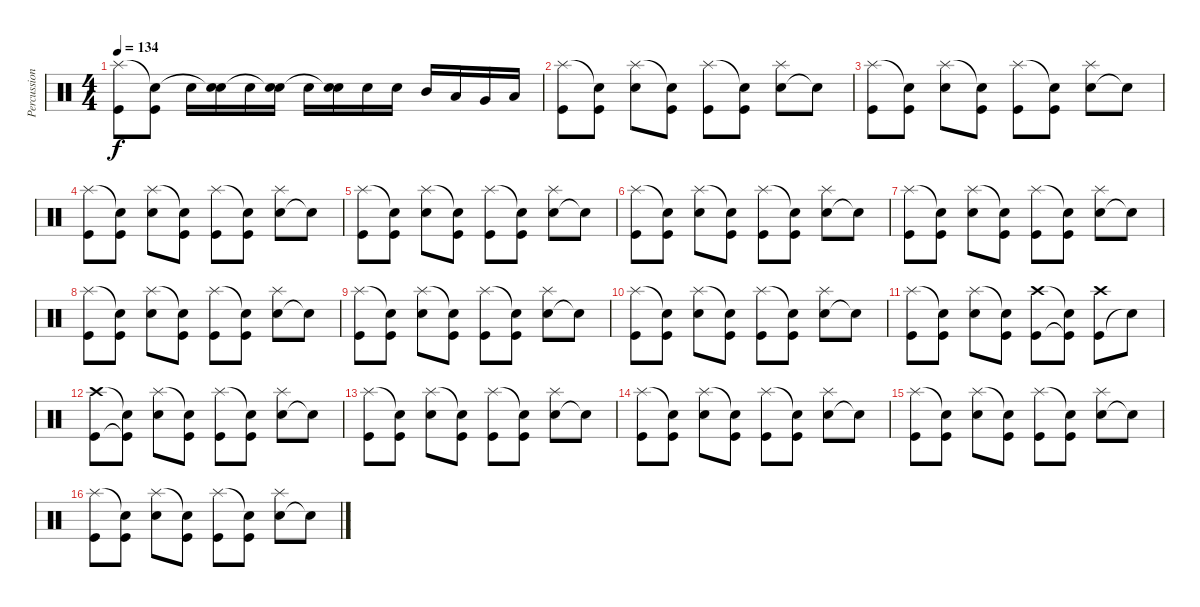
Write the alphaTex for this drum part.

\track ("Percussion" "Percussion") {instrument percussion}
\staff {score}
\articulation defaults
\ts (4 4)
\tempo 134
\clef neutral
\ks c
("Kick (hit)" "Splash (hit)").8{dy f} ("Kick (hit)" "Snare (hit)"{t}).8 "Snare (hit) 2".16 ("Snare (hit) 2" "Snare (hit)"{t}).16 "Snare (hit) 2".16 ("Snare (hit) 2" "Snare (hit)"{t}).16 "Snare (hit) 2".16 ("Snare (hit) 2" "Snare (hit)"{t}).16 "Snare (hit) 2".16 "Snare (hit) 2".16 "Mid Tom (hit)".16 "Low Tom (hit)".16 "Very Low Tom (hit)".16 "Low Floor Tom (hit)".16 |
("Kick (hit)" "Splash (hit)").8 ("Kick (hit)" "Snare (hit)"{t}).8 ("Snare (hit) 2" "Splash (hit)").8 ("Kick (hit)" "Snare (hit)"{t}).8 ("Kick (hit)" "Splash (hit)").8 ("Kick (hit)" "Snare (hit)"{t}).8 ("Snare (hit) 2" "Splash (hit)").8 "Snare (hit)"{t}.8 |
("Kick (hit)" "Splash (hit)").8 ("Kick (hit)" "Snare (hit)"{t}).8 ("Snare (hit) 2" "Splash (hit)").8 ("Kick (hit)" "Snare (hit)"{t}).8 ("Kick (hit)" "Splash (hit)").8 ("Kick (hit)" "Snare (hit)"{t}).8 ("Snare (hit) 2" "Splash (hit)").8 "Snare (hit)"{t}.8 |
("Kick (hit)" "Splash (hit)").8 ("Kick (hit)" "Snare (hit)"{t}).8 ("Snare (hit) 2" "Splash (hit)").8 ("Kick (hit)" "Snare (hit)"{t}).8 ("Kick (hit)" "Splash (hit)").8 ("Kick (hit)" "Snare (hit)"{t}).8 ("Snare (hit) 2" "Splash (hit)").8 "Snare (hit)"{t}.8 |
("Kick (hit)" "Splash (hit)").8 ("Kick (hit)" "Snare (hit)"{t}).8 ("Snare (hit) 2" "Splash (hit)").8 ("Kick (hit)" "Snare (hit)"{t}).8 ("Kick (hit)" "Splash (hit)").8 ("Kick (hit)" "Snare (hit)"{t}).8 ("Snare (hit) 2" "Splash (hit)").8 "Snare (hit)"{t}.8 |
("Kick (hit)" "Splash (hit)").8 ("Kick (hit)" "Snare (hit)"{t}).8 ("Snare (hit) 2" "Splash (hit)").8 ("Kick (hit)" "Snare (hit)"{t}).8 ("Kick (hit)" "Splash (hit)").8 ("Kick (hit)" "Snare (hit)"{t}).8 ("Snare (hit) 2" "Splash (hit)").8 "Snare (hit)"{t}.8 |
("Kick (hit)" "Splash (hit)").8 ("Kick (hit)" "Snare (hit)"{t}).8 ("Snare (hit) 2" "Splash (hit)").8 ("Kick (hit)" "Snare (hit)"{t}).8 ("Kick (hit)" "Splash (hit)").8 ("Kick (hit)" "Snare (hit)"{t}).8 ("Snare (hit) 2" "Splash (hit)").8 "Snare (hit)"{t}.8 |
("Kick (hit)" "Splash (hit)").8 ("Kick (hit)" "Snare (hit)"{t}).8 ("Snare (hit) 2" "Splash (hit)").8 ("Kick (hit)" "Snare (hit)"{t}).8 ("Kick (hit)" "Splash (hit)").8 ("Kick (hit)" "Snare (hit)"{t}).8 ("Snare (hit) 2" "Splash (hit)").8 "Snare (hit)"{t}.8 |
("Kick (hit)" "Splash (hit)").8 ("Kick (hit)" "Snare (hit)"{t}).8 ("Snare (hit) 2" "Splash (hit)").8 ("Kick (hit)" "Snare (hit)"{t}).8 ("Kick (hit)" "Splash (hit)").8 ("Kick (hit)" "Snare (hit)"{t}).8 ("Snare (hit) 2" "Splash (hit)").8 "Snare (hit)"{t}.8 |
("Kick (hit)" "Splash (hit)").8 ("Kick (hit)" "Snare (hit)"{t}).8 ("Snare (hit) 2" "Splash (hit)").8 ("Kick (hit)" "Snare (hit)"{t}).8 ("Kick (hit)" "Splash (hit)").8 ("Kick (hit)" "Snare (hit)"{t}).8 ("Snare (hit) 2" "Splash (hit)").8 "Snare (hit)"{t}.8 |
("Kick (hit)" "Splash (hit)").8 ("Kick (hit)" "Snare (hit)"{t}).8 ("Snare (hit) 2" "Splash (hit)").8 ("Kick (hit)" "Snare (hit)"{t}).8 ("Kick (hit)" "Crash high (hit)").8 ("Kick (hit)"{t} "Snare (hit)"{t}).8 ("Kick (hit)" "Crash high (hit)").8 "Snare (hit)"{t}.8 |
("Kick (hit)" "Crash high (hit)").8 ("Kick (hit)"{t} "Snare (hit)"{t}).8 ("Snare (hit) 2" "Splash (hit)").8 ("Kick (hit)" "Snare (hit)"{t}).8 ("Kick (hit)" "Splash (hit)").8 ("Kick (hit)" "Snare (hit)"{t}).8 ("Snare (hit) 2" "Splash (hit)").8 "Snare (hit)"{t}.8 |
("Kick (hit)" "Splash (hit)").8 ("Kick (hit)" "Snare (hit)"{t}).8 ("Snare (hit) 2" "Splash (hit)").8 ("Kick (hit)" "Snare (hit)"{t}).8 ("Kick (hit)" "Splash (hit)").8 ("Kick (hit)" "Snare (hit)"{t}).8 ("Snare (hit) 2" "Splash (hit)").8 "Snare (hit)"{t}.8 |
("Kick (hit)" "Splash (hit)").8 ("Kick (hit)" "Snare (hit)"{t}).8 ("Snare (hit) 2" "Splash (hit)").8 ("Kick (hit)" "Snare (hit)"{t}).8 ("Kick (hit)" "Splash (hit)").8 ("Kick (hit)" "Snare (hit)"{t}).8 ("Snare (hit) 2" "Splash (hit)").8 "Snare (hit)"{t}.8 |
("Kick (hit)" "Splash (hit)").8 ("Kick (hit)" "Snare (hit)"{t}).8 ("Snare (hit) 2" "Splash (hit)").8 ("Kick (hit)" "Snare (hit)"{t}).8 ("Kick (hit)" "Splash (hit)").8 ("Kick (hit)" "Snare (hit)"{t}).8 ("Snare (hit) 2" "Splash (hit)").8 "Snare (hit)"{t}.8 |
("Kick (hit)" "Splash (hit)").8 ("Kick (hit)" "Snare (hit)"{t}).8 ("Snare (hit) 2" "Splash (hit)").8 ("Kick (hit)" "Snare (hit)"{t}).8 ("Kick (hit)" "Splash (hit)").8 ("Kick (hit)" "Snare (hit)"{t}).8 ("Snare (hit) 2" "Splash (hit)").8 "Snare (hit)"{t}.8
